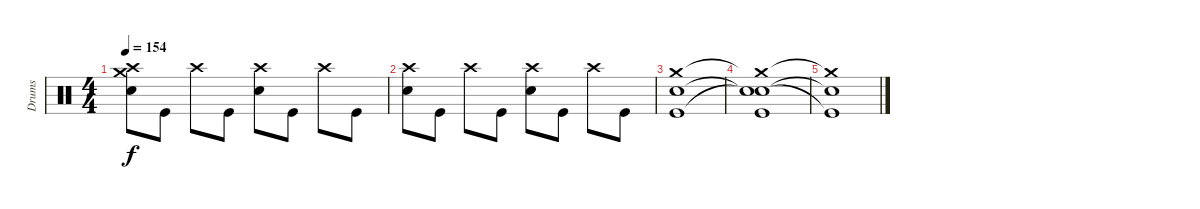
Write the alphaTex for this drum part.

\track ("Drums" "Drums") {instrument percussion}
\staff {score}
\articulation defaults
\ts (4 4)
\tempo 154
\clef neutral
\ks c
("Crash medium (hit)" "Crash high (hit)" "Electric Snare (hit)").8{dy f} "Kick (hit)".8 "Crash high (hit)".8 "Kick (hit)".8 ("Crash high (hit)" "Electric Snare (hit)").8 "Kick (hit)".8 "Crash high (hit)".8 "Kick (hit)".8 |
("Crash high (hit)" "Electric Snare (hit)").8 "Kick (hit)".8 "Crash high (hit)".8 "Kick (hit)".8 ("Crash high (hit)" "Electric Snare (hit)").8 "Kick (hit)".8 "Crash high (hit)".8 "Kick (hit)".8 |
("Crash medium (hit)" "Electric Snare (hit)" "Kick (hit)").1 |
("Crash medium (hit)"{t} "Snare (hit)"{t} "Electric Snare (hit)"{t} "Kick (hit)").1 |
("Crash medium (hit)"{t} "Electric Snare (hit)"{t} "Kick (hit)"{t}).1
